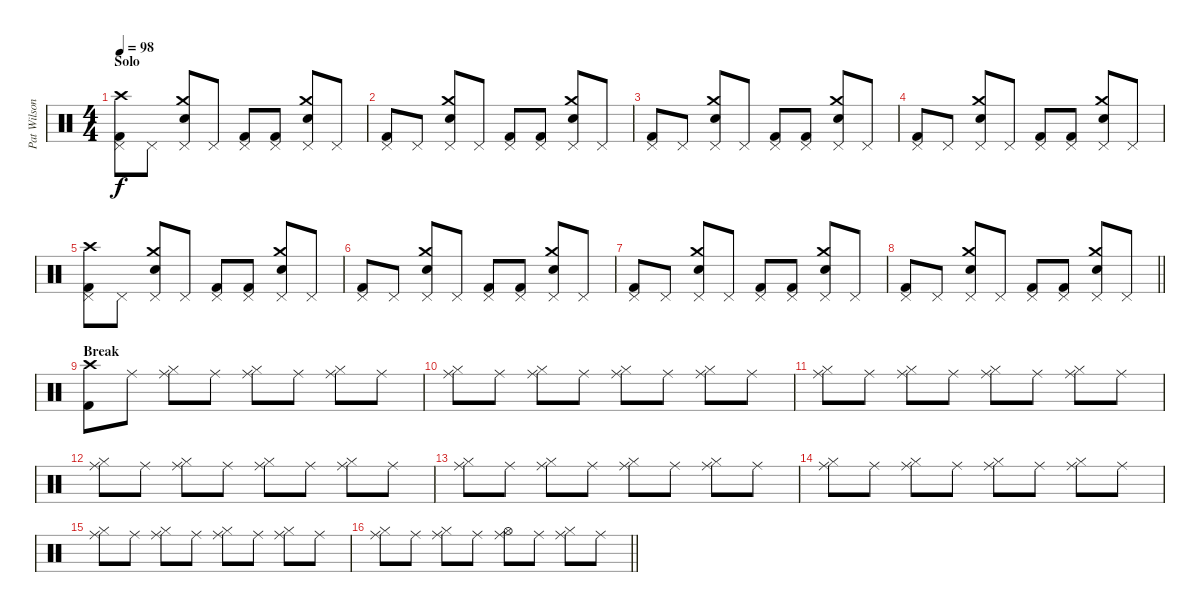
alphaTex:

\track ("Pat Wilson - Drums" "Pat Wilson") {instrument percussion}
\staff {score}
\articulation defaults
\ts (4 4)
\section ("" "Solo")
\tempo 98
\clef neutral
\ks c
("Crash high (hit)" "Pedal Hi-Hat (hit)" "Kick (hit) 2").8{dy f} "Pedal Hi-Hat (hit)".8 ("Crash medium (hit)" "Pedal Hi-Hat (hit)" "Electric Snare (hit)").8 "Pedal Hi-Hat (hit)".8 ("Pedal Hi-Hat (hit)" "Kick (hit) 2").8 ("Pedal Hi-Hat (hit)" "Kick (hit) 2").8 ("Crash medium (hit)" "Pedal Hi-Hat (hit)" "Electric Snare (hit)").8 "Pedal Hi-Hat (hit)".8 |
("Pedal Hi-Hat (hit)" "Kick (hit) 2").8 "Pedal Hi-Hat (hit)".8 ("Crash medium (hit)" "Pedal Hi-Hat (hit)" "Electric Snare (hit)").8 "Pedal Hi-Hat (hit)".8 ("Pedal Hi-Hat (hit)" "Kick (hit) 2").8 ("Pedal Hi-Hat (hit)" "Kick (hit) 2").8 ("Crash medium (hit)" "Pedal Hi-Hat (hit)" "Electric Snare (hit)").8 "Pedal Hi-Hat (hit)".8 |
("Pedal Hi-Hat (hit)" "Kick (hit) 2").8 "Pedal Hi-Hat (hit)".8 ("Crash medium (hit)" "Pedal Hi-Hat (hit)" "Electric Snare (hit)").8 "Pedal Hi-Hat (hit)".8 ("Pedal Hi-Hat (hit)" "Kick (hit) 2").8 ("Pedal Hi-Hat (hit)" "Kick (hit) 2").8 ("Crash medium (hit)" "Pedal Hi-Hat (hit)" "Electric Snare (hit)").8 "Pedal Hi-Hat (hit)".8 |
("Pedal Hi-Hat (hit)" "Kick (hit) 2").8 "Pedal Hi-Hat (hit)".8 ("Crash medium (hit)" "Pedal Hi-Hat (hit)" "Electric Snare (hit)").8 "Pedal Hi-Hat (hit)".8 ("Pedal Hi-Hat (hit)" "Kick (hit) 2").8 ("Pedal Hi-Hat (hit)" "Kick (hit) 2").8 ("Crash medium (hit)" "Pedal Hi-Hat (hit)" "Electric Snare (hit)").8 "Pedal Hi-Hat (hit)".8 |
("Crash high (hit)" "Pedal Hi-Hat (hit)" "Kick (hit) 2").8 "Pedal Hi-Hat (hit)".8 ("Crash medium (hit)" "Pedal Hi-Hat (hit)" "Electric Snare (hit)").8 "Pedal Hi-Hat (hit)".8 ("Pedal Hi-Hat (hit)" "Kick (hit) 2").8 ("Pedal Hi-Hat (hit)" "Kick (hit) 2").8 ("Crash medium (hit)" "Pedal Hi-Hat (hit)" "Electric Snare (hit)").8 "Pedal Hi-Hat (hit)".8 |
("Pedal Hi-Hat (hit)" "Kick (hit) 2").8 "Pedal Hi-Hat (hit)".8 ("Crash medium (hit)" "Pedal Hi-Hat (hit)" "Electric Snare (hit)").8 "Pedal Hi-Hat (hit)".8 ("Pedal Hi-Hat (hit)" "Kick (hit) 2").8 ("Pedal Hi-Hat (hit)" "Kick (hit) 2").8 ("Crash medium (hit)" "Pedal Hi-Hat (hit)" "Electric Snare (hit)").8 "Pedal Hi-Hat (hit)".8 |
("Pedal Hi-Hat (hit)" "Kick (hit) 2").8 "Pedal Hi-Hat (hit)".8 ("Crash medium (hit)" "Pedal Hi-Hat (hit)" "Electric Snare (hit)").8 "Pedal Hi-Hat (hit)".8 ("Pedal Hi-Hat (hit)" "Kick (hit) 2").8 ("Pedal Hi-Hat (hit)" "Kick (hit) 2").8 ("Crash medium (hit)" "Pedal Hi-Hat (hit)" "Electric Snare (hit)").8 "Pedal Hi-Hat (hit)".8 |
\barLineRight lightlight
("Pedal Hi-Hat (hit)" "Kick (hit) 2").8 "Pedal Hi-Hat (hit)".8 ("Crash medium (hit)" "Pedal Hi-Hat (hit)" "Electric Snare (hit)").8 "Pedal Hi-Hat (hit)".8 ("Pedal Hi-Hat (hit)" "Kick (hit) 2").8 ("Pedal Hi-Hat (hit)" "Kick (hit) 2").8 ("Crash medium (hit)" "Pedal Hi-Hat (hit)" "Electric Snare (hit)").8 "Pedal Hi-Hat (hit)".8 |
\section ("" "Break")
("Crash high (hit)" "Kick (hit) 2").8 "Ride (middle)".8 ("Hi-Hat (closed)" "Ride (middle)").8 "Ride (middle)".8 ("Hi-Hat (closed)" "Ride (middle)").8 "Ride (middle)".8 ("Hi-Hat (closed)" "Ride (middle)").8 "Ride (middle)".8 |
("Hi-Hat (closed)" "Ride (middle)").8 "Ride (middle)".8 ("Hi-Hat (closed)" "Ride (middle)").8 "Ride (middle)".8 ("Hi-Hat (closed)" "Ride (middle)").8 "Ride (middle)".8 ("Hi-Hat (closed)" "Ride (middle)").8 "Ride (middle)".8 |
("Hi-Hat (closed)" "Ride (middle)").8 "Ride (middle)".8 ("Hi-Hat (closed)" "Ride (middle)").8 "Ride (middle)".8 ("Hi-Hat (closed)" "Ride (middle)").8 "Ride (middle)".8 ("Hi-Hat (closed)" "Ride (middle)").8 "Ride (middle)".8 |
("Hi-Hat (closed)" "Ride (middle)").8 "Ride (middle)".8 ("Hi-Hat (closed)" "Ride (middle)").8 "Ride (middle)".8 ("Hi-Hat (closed)" "Ride (middle)").8 "Ride (middle)".8 ("Hi-Hat (closed)" "Ride (middle)").8 "Ride (middle)".8 |
("Hi-Hat (closed)" "Ride (middle)").8 "Ride (middle)".8 ("Hi-Hat (closed)" "Ride (middle)").8 "Ride (middle)".8 ("Hi-Hat (closed)" "Ride (middle)").8 "Ride (middle)".8 ("Hi-Hat (closed)" "Ride (middle)").8 "Ride (middle)".8 |
("Hi-Hat (closed)" "Ride (middle)").8 "Ride (middle)".8 ("Hi-Hat (closed)" "Ride (middle)").8 "Ride (middle)".8 ("Hi-Hat (closed)" "Ride (middle)").8 "Ride (middle)".8 ("Hi-Hat (closed)" "Ride (middle)").8 "Ride (middle)".8 |
("Hi-Hat (closed)" "Ride (middle)").8 "Ride (middle)".8 ("Hi-Hat (closed)" "Ride (middle)").8 "Ride (middle)".8 ("Hi-Hat (closed)" "Ride (middle)").8 "Ride (middle)".8 ("Hi-Hat (closed)" "Ride (middle)").8 "Ride (middle)".8 |
\barLineRight lightlight
("Hi-Hat (closed)" "Ride (middle)").8 "Ride (middle)".8 ("Hi-Hat (closed)" "Ride (middle)").8 "Ride (middle)".8 ("Hi-Hat (open)" "Ride (middle)").8 "Ride (middle)".8 ("Hi-Hat (closed)" "Ride (middle)").8 "Ride (middle)".8
